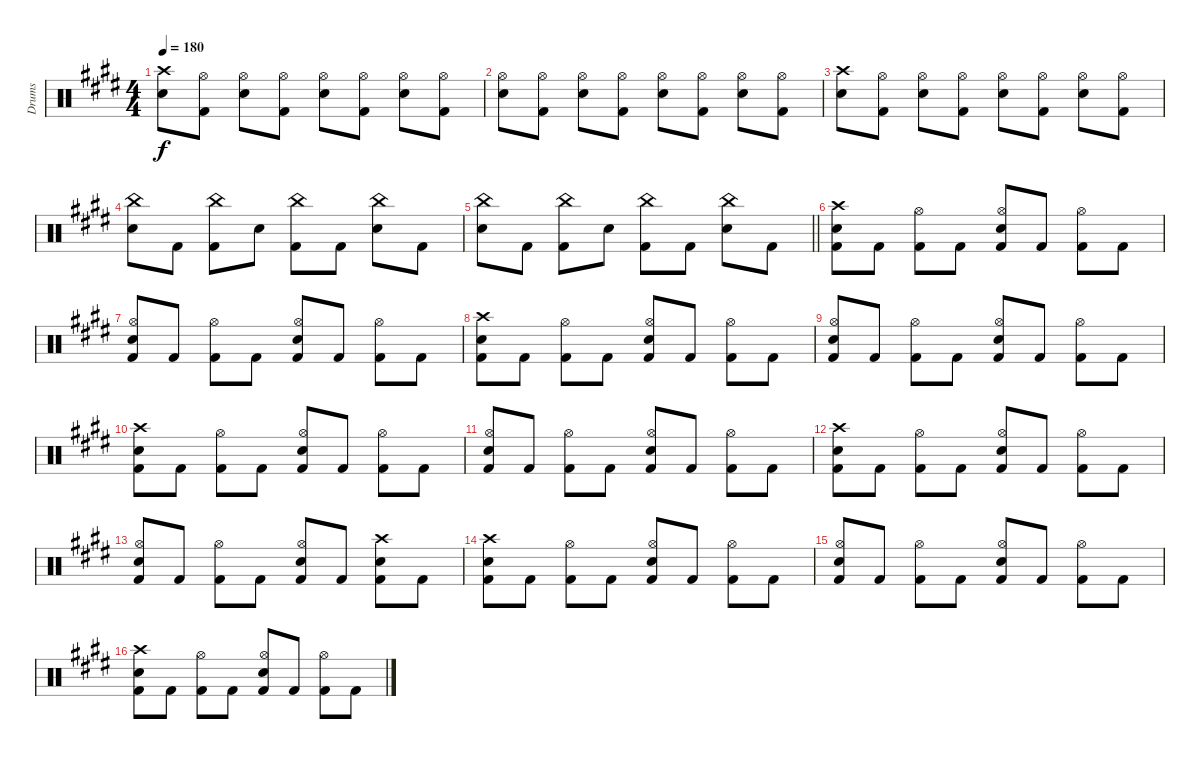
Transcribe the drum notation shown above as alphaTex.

\track ("Drums" "Drums") {instrument percussion}
\staff {score}
\articulation defaults
\ts (4 4)
\tempo 180
\clef neutral
\ks c#minor
("Crash high (hit)" "Snare (hit) 2").8{dy f} ("Hi-Hat (open)" "Kick (hit) 2").8 ("Hi-Hat (open)" "Snare (hit) 2").8 ("Hi-Hat (open)" "Kick (hit) 2").8 ("Hi-Hat (open)" "Snare (hit) 2").8 ("Hi-Hat (open)" "Kick (hit) 2").8 ("Hi-Hat (open)" "Snare (hit) 2").8 ("Hi-Hat (open)" "Kick (hit) 2").8 |
("Hi-Hat (open)" "Snare (hit) 2").8 ("Hi-Hat (open)" "Kick (hit) 2").8 ("Hi-Hat (open)" "Snare (hit) 2").8 ("Hi-Hat (open)" "Kick (hit) 2").8 ("Hi-Hat (open)" "Snare (hit) 2").8 ("Hi-Hat (open)" "Kick (hit) 2").8 ("Hi-Hat (open)" "Snare (hit) 2").8 ("Hi-Hat (open)" "Kick (hit) 2").8 |
("Crash high (hit)" "Snare (hit) 2").8 ("Hi-Hat (open)" "Kick (hit) 2").8 ("Hi-Hat (open)" "Snare (hit) 2").8 ("Hi-Hat (open)" "Kick (hit) 2").8 ("Hi-Hat (open)" "Snare (hit) 2").8 ("Hi-Hat (open)" "Kick (hit) 2").8 ("Hi-Hat (open)" "Snare (hit) 2").8 ("Hi-Hat (open)" "Kick (hit) 2").8 |
("China (hit)" "Snare (hit) 2").8 "Kick (hit) 2".8 ("China (hit)" "Kick (hit) 2").8 "Snare (hit) 2".8 ("China (hit)" "Kick (hit) 2").8 "Kick (hit) 2".8 ("China (hit)" "Snare (hit) 2").8 "Kick (hit) 2".8 |
\barLineRight lightlight
("China (hit)" "Snare (hit) 2").8 "Kick (hit) 2".8 ("China (hit)" "Kick (hit) 2").8 "Snare (hit) 2".8 ("China (hit)" "Kick (hit) 2").8 "Kick (hit) 2".8 ("China (hit)" "Snare (hit) 2").8 "Kick (hit) 2".8 |
("Crash high (hit)" "Snare (hit) 2" "Kick (hit) 2").8 "Kick (hit) 2".8 ("Hi-Hat (open)" "Kick (hit) 2").8 "Kick (hit) 2".8 ("Hi-Hat (open)" "Snare (hit) 2" "Kick (hit) 2").8 "Kick (hit) 2".8 ("Hi-Hat (open)" "Kick (hit) 2").8 "Kick (hit) 2".8 |
("Hi-Hat (open)" "Snare (hit) 2" "Kick (hit) 2").8 "Kick (hit) 2".8 ("Hi-Hat (open)" "Kick (hit) 2").8 "Kick (hit) 2".8 ("Hi-Hat (open)" "Snare (hit) 2" "Kick (hit) 2").8 "Kick (hit) 2".8 ("Hi-Hat (open)" "Kick (hit) 2").8 "Kick (hit) 2".8 |
("Crash high (hit)" "Snare (hit) 2" "Kick (hit) 2").8 "Kick (hit) 2".8 ("Hi-Hat (open)" "Kick (hit) 2").8 "Kick (hit) 2".8 ("Hi-Hat (open)" "Snare (hit) 2" "Kick (hit) 2").8 "Kick (hit) 2".8 ("Hi-Hat (open)" "Kick (hit) 2").8 "Kick (hit) 2".8 |
("Hi-Hat (open)" "Snare (hit) 2" "Kick (hit) 2").8 "Kick (hit) 2".8 ("Hi-Hat (open)" "Kick (hit) 2").8 "Kick (hit) 2".8 ("Hi-Hat (open)" "Snare (hit) 2" "Kick (hit) 2").8 "Kick (hit) 2".8 ("Hi-Hat (open)" "Kick (hit) 2").8 "Kick (hit) 2".8 |
("Crash high (hit)" "Snare (hit) 2" "Kick (hit) 2").8 "Kick (hit) 2".8 ("Hi-Hat (open)" "Kick (hit) 2").8 "Kick (hit) 2".8 ("Hi-Hat (open)" "Snare (hit) 2" "Kick (hit) 2").8 "Kick (hit) 2".8 ("Hi-Hat (open)" "Kick (hit) 2").8 "Kick (hit) 2".8 |
("Hi-Hat (open)" "Snare (hit) 2" "Kick (hit) 2").8 "Kick (hit) 2".8 ("Hi-Hat (open)" "Kick (hit) 2").8 "Kick (hit) 2".8 ("Hi-Hat (open)" "Snare (hit) 2" "Kick (hit) 2").8 "Kick (hit) 2".8 ("Hi-Hat (open)" "Kick (hit) 2").8 "Kick (hit) 2".8 |
("Crash high (hit)" "Snare (hit) 2" "Kick (hit) 2").8 "Kick (hit) 2".8 ("Hi-Hat (open)" "Kick (hit) 2").8 "Kick (hit) 2".8 ("Hi-Hat (open)" "Snare (hit) 2" "Kick (hit) 2").8 "Kick (hit) 2".8 ("Hi-Hat (open)" "Kick (hit) 2").8 "Kick (hit) 2".8 |
("Hi-Hat (open)" "Snare (hit) 2" "Kick (hit) 2").8 "Kick (hit) 2".8 ("Hi-Hat (open)" "Kick (hit) 2").8 "Kick (hit) 2".8 ("Hi-Hat (open)" "Snare (hit) 2" "Kick (hit) 2").8 "Kick (hit) 2".8 ("Crash high (hit)" "Snare (hit) 2" "Kick (hit) 2").8 "Kick (hit) 2".8 |
("Crash high (hit)" "Snare (hit) 2" "Kick (hit) 2").8 "Kick (hit) 2".8 ("Hi-Hat (open)" "Kick (hit) 2").8 "Kick (hit) 2".8 ("Hi-Hat (open)" "Snare (hit) 2" "Kick (hit) 2").8 "Kick (hit) 2".8 ("Hi-Hat (open)" "Kick (hit) 2").8 "Kick (hit) 2".8 |
("Hi-Hat (open)" "Snare (hit) 2" "Kick (hit) 2").8 "Kick (hit) 2".8 ("Hi-Hat (open)" "Kick (hit) 2").8 "Kick (hit) 2".8 ("Hi-Hat (open)" "Snare (hit) 2" "Kick (hit) 2").8 "Kick (hit) 2".8 ("Hi-Hat (open)" "Kick (hit) 2").8 "Kick (hit) 2".8 |
("Crash high (hit)" "Snare (hit) 2" "Kick (hit) 2").8 "Kick (hit) 2".8 ("Hi-Hat (open)" "Kick (hit) 2").8 "Kick (hit) 2".8 ("Hi-Hat (open)" "Snare (hit) 2" "Kick (hit) 2").8 "Kick (hit) 2".8 ("Hi-Hat (open)" "Kick (hit) 2").8 "Kick (hit) 2".8
